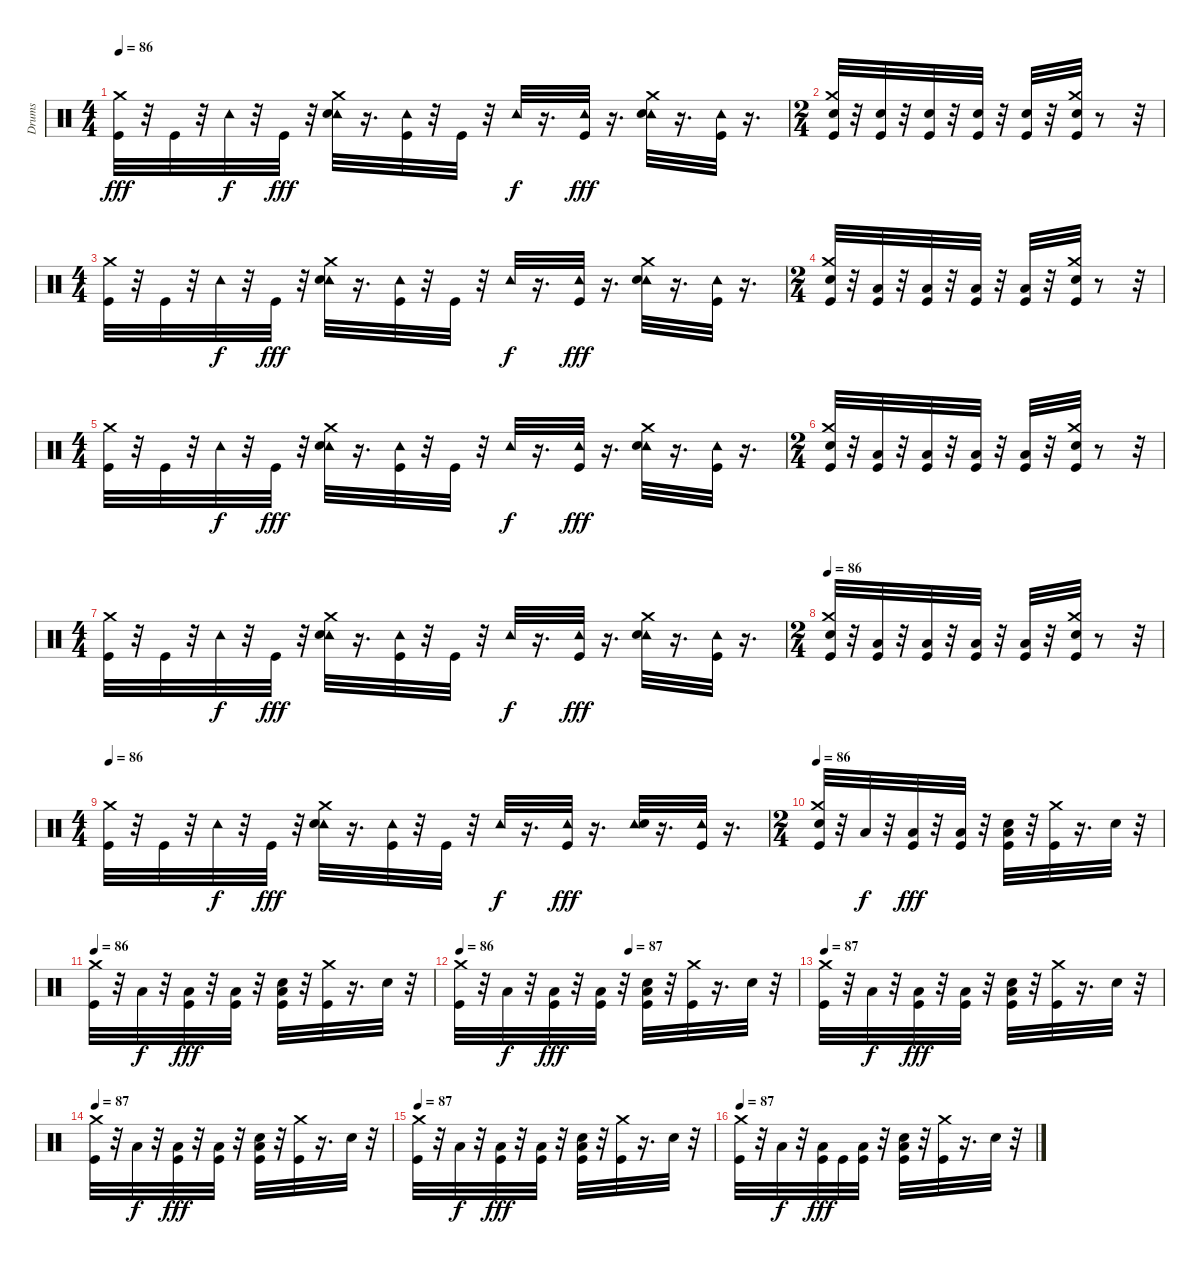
\track ("Drums" "Drums") {instrument percussion}
\staff {score}
\articulation defaults
\ts (4 4)
\tempo 86
\clef neutral
\ks c
("Kick (hit)" "Crash medium (hit)").32{dy fff} r.32 "Kick (hit)".32 r.32 "Tambourine (hit)".32{dy f} r.32 "Kick (hit)".32{dy fff} r.32 ("Crash medium (hit)" "Tambourine (hit)" "Electric Snare (hit)").32 r.16{d} ("Tambourine (hit)" "Kick (hit)").32 r.32 "Kick (hit)".32 r.32 "Tambourine (hit)".32{dy f} r.16{d} ("Kick (hit)" "Tambourine (hit)").32{dy fff} r.16{d} ("Crash medium (hit)" "Tambourine (hit)" "Electric Snare (hit)").32 r.16{d} ("Kick (hit)" "Tambourine (hit)").32 r.16{d} |
\ts (2 4)
("Electric Snare (hit)" "Crash medium (hit)" "Kick (hit)").32 r.32 ("Electric Snare (hit)" "Kick (hit)").32 r.32 ("Electric Snare (hit)" "Kick (hit)").32 r.32 ("Electric Snare (hit)" "Kick (hit)").32 r.32 ("Electric Snare (hit)" "Kick (hit)").32 r.32 ("Electric Snare (hit)" "Crash medium (hit)" "Kick (hit)").32 r.8 r.32 |
\ts (4 4)
("Kick (hit)" "Crash medium (hit)").32 r.32 "Kick (hit)".32 r.32 "Tambourine (hit)".32{dy f} r.32 "Kick (hit)".32{dy fff} r.32 ("Crash medium (hit)" "Tambourine (hit)" "Electric Snare (hit)").32 r.16{d} ("Tambourine (hit)" "Kick (hit)").32 r.32 "Kick (hit)".32 r.32 "Tambourine (hit)".32{dy f} r.16{d} ("Kick (hit)" "Tambourine (hit)").32{dy fff} r.16{d} ("Crash medium (hit)" "Tambourine (hit)" "Electric Snare (hit)").32 r.16{d} ("Kick (hit)" "Tambourine (hit)").32 r.16{d} |
\ts (2 4)
("Electric Snare (hit)" "Crash medium (hit)" "Kick (hit)").32 r.32 ("Low Floor Tom (hit)" "Kick (hit)").32 r.32 ("Low Floor Tom (hit)" "Kick (hit)").32 r.32 ("Low Floor Tom (hit)" "Kick (hit)").32 r.32 ("Low Floor Tom (hit)" "Kick (hit)").32 r.32 ("Electric Snare (hit)" "Crash medium (hit)" "Kick (hit)").32 r.8 r.32 |
\ts (4 4)
("Kick (hit)" "Crash medium (hit)").32 r.32 "Kick (hit)".32 r.32 "Tambourine (hit)".32{dy f} r.32 "Kick (hit)".32{dy fff} r.32 ("Crash medium (hit)" "Tambourine (hit)" "Electric Snare (hit)").32 r.16{d} ("Tambourine (hit)" "Kick (hit)").32 r.32 "Kick (hit)".32 r.32 "Tambourine (hit)".32{dy f} r.16{d} ("Kick (hit)" "Tambourine (hit)").32{dy fff} r.16{d} ("Crash medium (hit)" "Tambourine (hit)" "Electric Snare (hit)").32 r.16{d} ("Kick (hit)" "Tambourine (hit)").32 r.16{d} |
\ts (2 4)
("Electric Snare (hit)" "Crash medium (hit)" "Kick (hit)").32 r.32 ("Low Floor Tom (hit)" "Kick (hit)").32 r.32 ("Low Floor Tom (hit)" "Kick (hit)").32 r.32 ("Low Floor Tom (hit)" "Kick (hit)").32 r.32 ("Low Floor Tom (hit)" "Kick (hit)").32 r.32 ("Electric Snare (hit)" "Crash medium (hit)" "Kick (hit)").32 r.8 r.32 |
\ts (4 4)
("Kick (hit)" "Crash medium (hit)").32 r.32 "Kick (hit)".32 r.32 "Tambourine (hit)".32{dy f} r.32 "Kick (hit)".32{dy fff} r.32 ("Crash medium (hit)" "Tambourine (hit)" "Electric Snare (hit)").32 r.16{d} ("Tambourine (hit)" "Kick (hit)").32 r.32 "Kick (hit)".32 r.32 "Tambourine (hit)".32{dy f} r.16{d} ("Kick (hit)" "Tambourine (hit)").32{dy fff} r.16{d} ("Crash medium (hit)" "Tambourine (hit)" "Electric Snare (hit)").32 r.16{d} ("Kick (hit)" "Tambourine (hit)").32 r.16{d} |
\ts (2 4)
\tempo 86
("Electric Snare (hit)" "Crash medium (hit)" "Kick (hit)").32 r.32 ("Low Floor Tom (hit)" "Kick (hit)").32 r.32 ("Low Floor Tom (hit)" "Kick (hit)").32 r.32 ("Low Floor Tom (hit)" "Kick (hit)").32 r.32 ("Low Floor Tom (hit)" "Kick (hit)").32 r.32 ("Electric Snare (hit)" "Crash medium (hit)" "Kick (hit)").32 r.8 r.32 |
\ts (4 4)
\tempo 86
("Kick (hit)" "Crash medium (hit)").32 r.32 "Kick (hit)".32 r.32 "Tambourine (hit)".32{dy f} r.32 "Kick (hit)".32{dy fff} r.32 ("Crash medium (hit)" "Tambourine (hit)" "Electric Snare (hit)").32 r.16{d} ("Tambourine (hit)" "Kick (hit)").32 r.32 "Kick (hit)".32 r.32 "Tambourine (hit)".32{dy f} r.16{d} ("Kick (hit)" "Tambourine (hit)").32{dy fff} r.16{d} ("Tambourine (hit)" "Electric Snare (hit)").32 r.16{d} ("Kick (hit)" "Tambourine (hit)").32 r.16{d} |
\ts (2 4)
\tempo 86
("Electric Snare (hit)" "Crash medium (hit)" "Kick (hit)").32 r.32 "Low Floor Tom (hit)".32{dy f} r.32 ("Low Floor Tom (hit)" "Kick (hit)").32{dy fff} r.32 ("Low Floor Tom (hit)" "Kick (hit)").32 r.32 ("Electric Snare (hit)" "Low Floor Tom (hit)" "Kick (hit)").32 r.32 ("Crash medium (hit)" "Kick (hit)").32 r.16{d} "Electric Snare (hit)".32 r.32 |
\tempo 86
("Crash medium (hit)" "Kick (hit)").32 r.32 "Low Floor Tom (hit)".32{dy f} r.32 ("Low Floor Tom (hit)" "Kick (hit)").32{dy fff} r.32 ("Low Floor Tom (hit)" "Kick (hit)").32 r.32 ("Electric Snare (hit)" "Low Floor Tom (hit)" "Kick (hit)").32 r.32 ("Crash medium (hit)" "Kick (hit)").32 r.16{d} "Electric Snare (hit)".32 r.32 |
\tempo 86
\tempo (87 0.5)
("Crash medium (hit)" "Kick (hit)").32 r.32 "Low Floor Tom (hit)".32{dy f} r.32 ("Low Floor Tom (hit)" "Kick (hit)").32{dy fff} r.32 ("Low Floor Tom (hit)" "Kick (hit)").32 r.32 ("Electric Snare (hit)" "Low Floor Tom (hit)" "Kick (hit)").32 r.32 ("Crash medium (hit)" "Kick (hit)").32 r.16{d} "Electric Snare (hit)".32 r.32 |
\tempo 87
("Crash medium (hit)" "Kick (hit)").32 r.32 "Low Floor Tom (hit)".32{dy f} r.32 ("Low Floor Tom (hit)" "Kick (hit)").32{dy fff} r.32 ("Low Floor Tom (hit)" "Kick (hit)").32 r.32 ("Electric Snare (hit)" "Low Floor Tom (hit)" "Kick (hit)").32 r.32 ("Crash medium (hit)" "Kick (hit)").32 r.16{d} "Electric Snare (hit)".32 r.32 |
\tempo 87
("Crash medium (hit)" "Kick (hit)").32 r.32 "Low Floor Tom (hit)".32{dy f} r.32 ("Low Floor Tom (hit)" "Kick (hit)").32{dy fff} r.32 ("Low Floor Tom (hit)" "Kick (hit)").32 r.32 ("Electric Snare (hit)" "Low Floor Tom (hit)" "Kick (hit)").32 r.32 ("Crash medium (hit)" "Kick (hit)").32 r.16{d} "Electric Snare (hit)".32 r.32 |
\tempo 87
("Crash medium (hit)" "Kick (hit)").32 r.32 "Low Floor Tom (hit)".32{dy f} r.32 ("Low Floor Tom (hit)" "Kick (hit)").32{dy fff} r.32 ("Low Floor Tom (hit)" "Kick (hit)").32 r.32 ("Electric Snare (hit)" "Low Floor Tom (hit)" "Kick (hit)").32 r.32 ("Crash medium (hit)" "Kick (hit)").32 r.16{d} "Electric Snare (hit)".32 r.32 |
\tempo 87
("Crash medium (hit)" "Kick (hit)").32 r.32 "Low Floor Tom (hit)".32{dy f} r.32 ("Kick (hit)" "Low Floor Tom (hit)").32{dy fff} "Kick (hit)".32 ("Low Floor Tom (hit)" "Kick (hit)").32 r.32 ("Electric Snare (hit)" "Low Floor Tom (hit)" "Kick (hit)").32 r.32 ("Crash medium (hit)" "Kick (hit)").32 r.16{d} "Electric Snare (hit)".32 r.32
